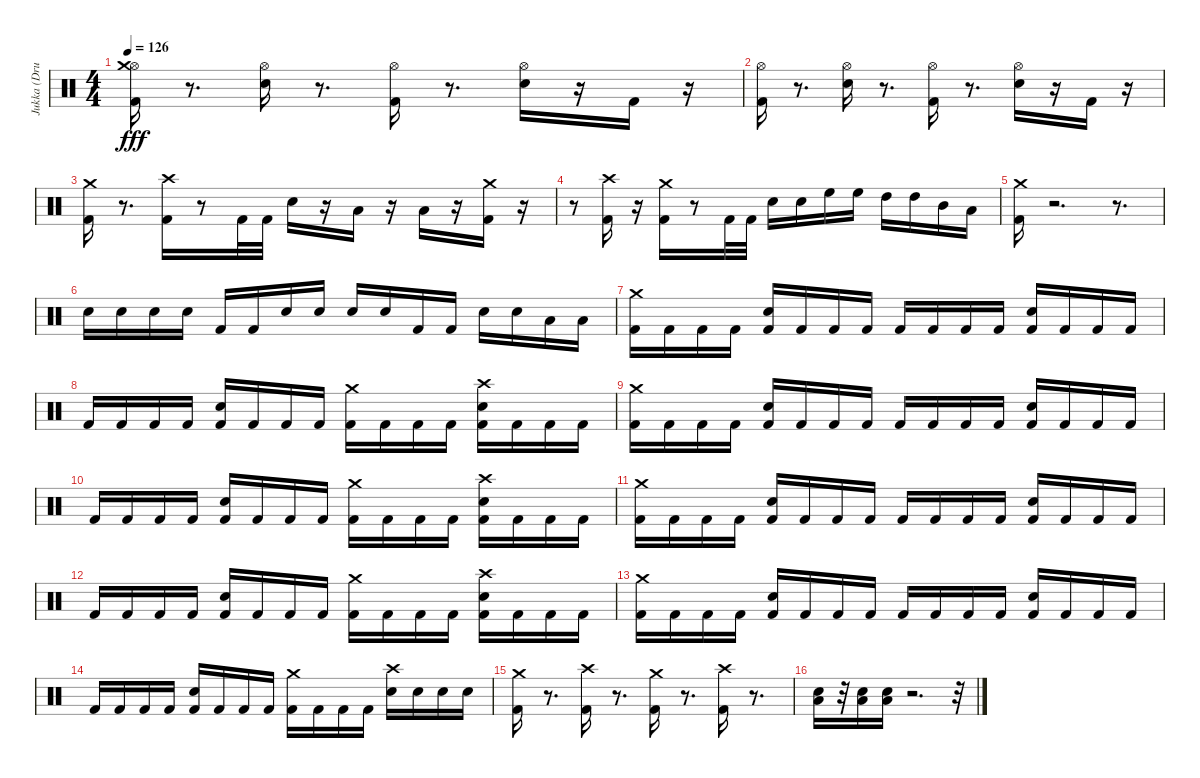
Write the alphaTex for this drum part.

\track ("Jukka (Drums)" "Jukka (Dru") {instrument percussion}
\staff {score}
\articulation defaults
\ts (4 4)
\tempo 126
\clef neutral
\ks c
("Kick (hit) 2" "Hi-Hat (open)" "Crash medium (hit)").16{dy fff} r.8{d} ("Electric Snare (hit)" "Hi-Hat (open)").16 r.8{d} ("Kick (hit) 2" "Hi-Hat (open)").16 r.8{d} ("Electric Snare (hit)" "Hi-Hat (open)").16 r.16 "Kick (hit) 2".16 r.16 |
("Kick (hit) 2" "Hi-Hat (open)").16 r.8{d} ("Electric Snare (hit)" "Hi-Hat (open)").16 r.8{d} ("Kick (hit) 2" "Hi-Hat (open)").16 r.8{d} ("Electric Snare (hit)" "Hi-Hat (open)").16 r.16 "Kick (hit) 2".16 r.16 |
("Kick (hit) 2" "Crash medium (hit)").16 r.8{d} ("Kick (hit) 2" "Crash high (hit)").16 r.8 "Kick (hit) 2".32 "Kick (hit) 2".32 "Electric Snare (hit)".16 r.16 "Low Tom (hit)".16 r.16 "Low Floor Tom (hit)".16 r.16 ("Kick (hit) 2" "Crash medium (hit)").16 r.16 |
r.8 ("Kick (hit) 2" "Crash high (hit)").16 r.16 ("Kick (hit) 2" "Crash medium (hit)").16 r.8 "Kick (hit) 2".32 "Kick (hit) 2".32 "Electric Snare (hit)".16 "Electric Snare (hit)".16 "High Floor Tom (hit)".16 "High Floor Tom (hit)".16 "High Tom (hit)".16 "High Tom (hit)".16 "Mid Tom (hit)".16 "Low Tom (hit)".16 |
("Kick (hit) 2" "Crash medium (hit)").16 r.2{d} r.8{d} |
"Electric Snare (hit)".16 "Electric Snare (hit)".16 "Electric Snare (hit)".16 "Electric Snare (hit)".16 "Kick (hit) 2".16 "Kick (hit) 2".16 "Electric Snare (hit)".16 "Electric Snare (hit)".16 "Electric Snare (hit)".16 "Electric Snare (hit)".16 "Kick (hit) 2".16 "Kick (hit) 2".16 "Electric Snare (hit)".16 "Electric Snare (hit)".16 "Low Tom (hit)".16 "Low Floor Tom (hit)".16 |
("Kick (hit) 2" "Crash medium (hit)").16 "Kick (hit) 2".16 "Kick (hit) 2".16 "Kick (hit) 2".16 ("Kick (hit) 2" "Electric Snare (hit)").16 "Kick (hit) 2".16 "Kick (hit) 2".16 "Kick (hit) 2".16 "Kick (hit) 2".16 "Kick (hit) 2".16 "Kick (hit) 2".16 "Kick (hit) 2".16 ("Kick (hit) 2" "Electric Snare (hit)").16 "Kick (hit) 2".16 "Kick (hit) 2".16 "Kick (hit) 2".16 |
"Kick (hit) 2".16 "Kick (hit) 2".16 "Kick (hit) 2".16 "Kick (hit) 2".16 ("Kick (hit) 2" "Electric Snare (hit)").16 "Kick (hit) 2".16 "Kick (hit) 2".16 "Kick (hit) 2".16 ("Kick (hit) 2" "Crash medium (hit)").16 "Kick (hit) 2".16 "Kick (hit) 2".16 "Kick (hit) 2".16 ("Kick (hit) 2" "Electric Snare (hit)" "Crash high (hit)").16 "Kick (hit) 2".16 "Kick (hit) 2".16 "Kick (hit) 2".16 |
("Kick (hit) 2" "Crash medium (hit)").16 "Kick (hit) 2".16 "Kick (hit) 2".16 "Kick (hit) 2".16 ("Kick (hit) 2" "Electric Snare (hit)").16 "Kick (hit) 2".16 "Kick (hit) 2".16 "Kick (hit) 2".16 "Kick (hit) 2".16 "Kick (hit) 2".16 "Kick (hit) 2".16 "Kick (hit) 2".16 ("Kick (hit) 2" "Electric Snare (hit)").16 "Kick (hit) 2".16 "Kick (hit) 2".16 "Kick (hit) 2".16 |
"Kick (hit) 2".16 "Kick (hit) 2".16 "Kick (hit) 2".16 "Kick (hit) 2".16 ("Kick (hit) 2" "Electric Snare (hit)").16 "Kick (hit) 2".16 "Kick (hit) 2".16 "Kick (hit) 2".16 ("Kick (hit) 2" "Crash medium (hit)").16 "Kick (hit) 2".16 "Kick (hit) 2".16 "Kick (hit) 2".16 ("Kick (hit) 2" "Electric Snare (hit)" "Crash high (hit)").16 "Kick (hit) 2".16 "Kick (hit) 2".16 "Kick (hit) 2".16 |
("Kick (hit) 2" "Crash medium (hit)").16 "Kick (hit) 2".16 "Kick (hit) 2".16 "Kick (hit) 2".16 ("Kick (hit) 2" "Electric Snare (hit)").16 "Kick (hit) 2".16 "Kick (hit) 2".16 "Kick (hit) 2".16 "Kick (hit) 2".16 "Kick (hit) 2".16 "Kick (hit) 2".16 "Kick (hit) 2".16 ("Kick (hit) 2" "Electric Snare (hit)").16 "Kick (hit) 2".16 "Kick (hit) 2".16 "Kick (hit) 2".16 |
"Kick (hit) 2".16 "Kick (hit) 2".16 "Kick (hit) 2".16 "Kick (hit) 2".16 ("Kick (hit) 2" "Electric Snare (hit)").16 "Kick (hit) 2".16 "Kick (hit) 2".16 "Kick (hit) 2".16 ("Kick (hit) 2" "Crash medium (hit)").16 "Kick (hit) 2".16 "Kick (hit) 2".16 "Kick (hit) 2".16 ("Kick (hit) 2" "Electric Snare (hit)" "Crash high (hit)").16 "Kick (hit) 2".16 "Kick (hit) 2".16 "Kick (hit) 2".16 |
("Kick (hit) 2" "Crash medium (hit)").16 "Kick (hit) 2".16 "Kick (hit) 2".16 "Kick (hit) 2".16 ("Kick (hit) 2" "Electric Snare (hit)").16 "Kick (hit) 2".16 "Kick (hit) 2".16 "Kick (hit) 2".16 "Kick (hit) 2".16 "Kick (hit) 2".16 "Kick (hit) 2".16 "Kick (hit) 2".16 ("Kick (hit) 2" "Electric Snare (hit)").16 "Kick (hit) 2".16 "Kick (hit) 2".16 "Kick (hit) 2".16 |
"Kick (hit) 2".16 "Kick (hit) 2".16 "Kick (hit) 2".16 "Kick (hit) 2".16 ("Kick (hit) 2" "Electric Snare (hit)").16 "Kick (hit) 2".16 "Kick (hit) 2".16 "Kick (hit) 2".16 ("Kick (hit) 2" "Crash medium (hit)").16 "Kick (hit) 2".16 "Kick (hit) 2".16 "Kick (hit) 2".16 ("Electric Snare (hit)" "Crash high (hit)").16 "Electric Snare (hit)".16 "Electric Snare (hit)".16 "Electric Snare (hit)".16 |
("Kick (hit) 2" "Crash medium (hit)").16 r.8{d} ("Kick (hit) 2" "Crash high (hit)").16 r.8{d} ("Kick (hit) 2" "Crash medium (hit)").16 r.8{d} ("Kick (hit) 2" "Crash high (hit)").16 r.8{d} |
("Electric Snare (hit)" "Low Floor Tom (hit)").16 r.32 ("Electric Snare (hit)" "Low Floor Tom (hit)").16 ("Electric Snare (hit)" "Low Floor Tom (hit)").16 r.2{d} r.32
